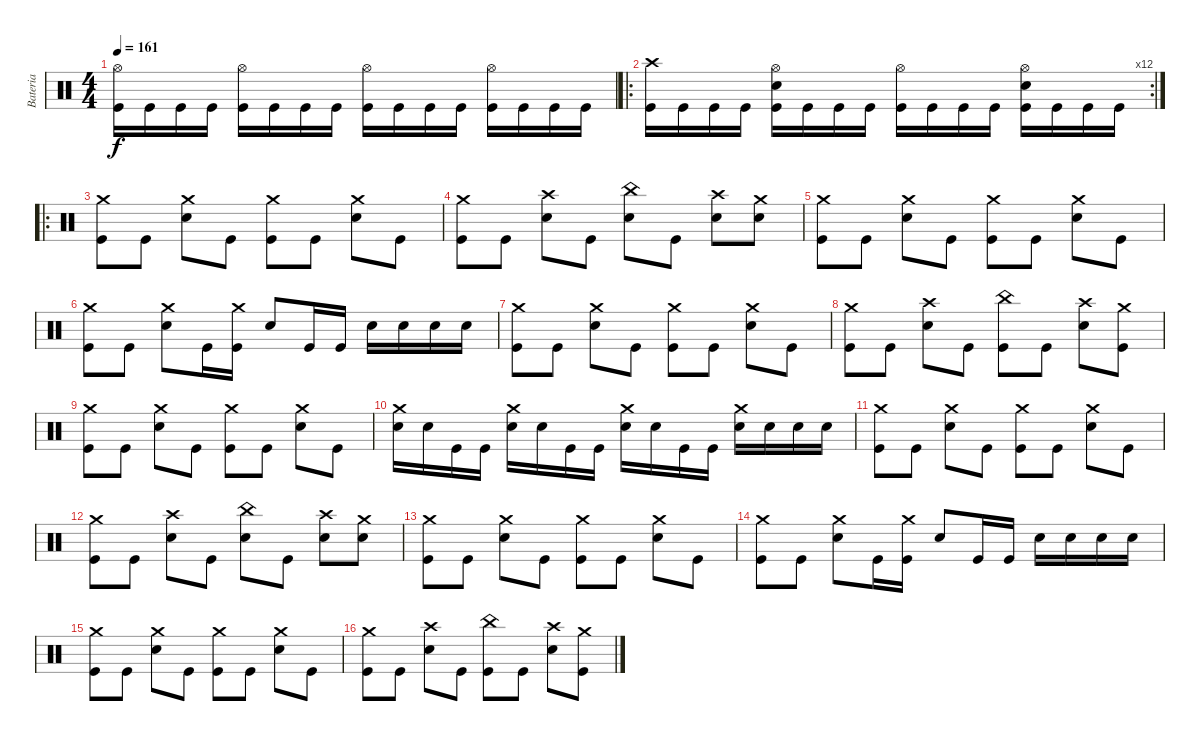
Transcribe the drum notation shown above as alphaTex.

\track ("Bateria" "Bateria") {instrument percussion}
\staff {score}
\articulation defaults
\ts (4 4)
\tempo 161
\clef neutral
\ks c
("Hi-Hat (open)" "Kick (hit)").16{dy f} "Kick (hit)".16 "Kick (hit)".16 "Kick (hit)".16 ("Hi-Hat (open)" "Kick (hit)").16 "Kick (hit)".16 "Kick (hit)".16 "Kick (hit)".16 ("Hi-Hat (open)" "Kick (hit)").16 "Kick (hit)".16 "Kick (hit)".16 "Kick (hit)".16 ("Hi-Hat (open)" "Kick (hit)").16 "Kick (hit)".16 "Kick (hit)".16 "Kick (hit)".16 |
\ro
\rc 12
("Crash high (hit)" "Kick (hit)").16 "Kick (hit)".16 "Kick (hit)".16 "Kick (hit)".16 ("Hi-Hat (open)" "Kick (hit)" "Electric Snare (hit)").16 "Kick (hit)".16 "Kick (hit)".16 "Kick (hit)".16 ("Hi-Hat (open)" "Kick (hit)").16 "Kick (hit)".16 "Kick (hit)".16 "Kick (hit)".16 ("Hi-Hat (open)" "Kick (hit)" "Electric Snare (hit)").16 "Kick (hit)".16 "Kick (hit)".16 "Kick (hit)".16 |
\ro
("Crash medium (hit)" "Kick (hit)").8 "Kick (hit)".8 ("Crash medium (hit)" "Electric Snare (hit)").8 "Kick (hit)".8 ("Crash medium (hit)" "Kick (hit)").8 "Kick (hit)".8 ("Crash medium (hit)" "Electric Snare (hit)").8 "Kick (hit)".8 |
("Crash medium (hit)" "Kick (hit)").8 "Kick (hit)".8 ("Crash high (hit)" "Electric Snare (hit)").8 "Kick (hit)".8 ("China (hit)" "Electric Snare (hit)").8 "Kick (hit)".8 ("Crash high (hit)" "Electric Snare (hit)").8 ("Crash medium (hit)" "Electric Snare (hit)").8 |
("Crash medium (hit)" "Kick (hit)").8 "Kick (hit)".8 ("Crash medium (hit)" "Electric Snare (hit)").8 "Kick (hit)".8 ("Crash medium (hit)" "Kick (hit)").8 "Kick (hit)".8 ("Crash medium (hit)" "Electric Snare (hit)").8 "Kick (hit)".8 |
("Crash medium (hit)" "Kick (hit)").8 "Kick (hit)".8 ("Crash medium (hit)" "Electric Snare (hit)").8 "Kick (hit)".16 ("Crash medium (hit)" "Kick (hit)").16 "Electric Snare (hit)".8 "Kick (hit)".16 "Kick (hit)".16 "Electric Snare (hit)".16 "Electric Snare (hit)".16 "Electric Snare (hit)".16 "Electric Snare (hit)".16 |
("Crash medium (hit)" "Kick (hit)").8 "Kick (hit)".8 ("Crash medium (hit)" "Electric Snare (hit)").8 "Kick (hit)".8 ("Crash medium (hit)" "Kick (hit)").8 "Kick (hit)".8 ("Crash medium (hit)" "Electric Snare (hit)").8 "Kick (hit)".8 |
("Crash medium (hit)" "Kick (hit)").8 "Kick (hit)".8 ("Crash high (hit)" "Electric Snare (hit)").8 "Kick (hit)".8 ("China (hit)" "Kick (hit)").8 "Kick (hit)".8 ("Crash high (hit)" "Electric Snare (hit)").8 ("Crash medium (hit)" "Kick (hit)").8 |
("Crash medium (hit)" "Kick (hit)").8 "Kick (hit)".8 ("Crash medium (hit)" "Electric Snare (hit)").8 "Kick (hit)".8 ("Crash medium (hit)" "Kick (hit)").8 "Kick (hit)".8 ("Crash medium (hit)" "Electric Snare (hit)").8 "Kick (hit)".8 |
("Crash medium (hit)" "Electric Snare (hit)").16 "Electric Snare (hit)".16 "Kick (hit)".16 "Kick (hit)".16 ("Crash medium (hit)" "Electric Snare (hit)").16 "Electric Snare (hit)".16 "Kick (hit)".16 "Kick (hit)".16 ("Crash medium (hit)" "Electric Snare (hit)").16 "Electric Snare (hit)".16 "Kick (hit)".16 "Kick (hit)".16 ("Crash medium (hit)" "Electric Snare (hit)").16 "Electric Snare (hit)".16 "Electric Snare (hit)".16 "Electric Snare (hit)".16 |
("Crash medium (hit)" "Kick (hit)").8 "Kick (hit)".8 ("Crash medium (hit)" "Electric Snare (hit)").8 "Kick (hit)".8 ("Crash medium (hit)" "Kick (hit)").8 "Kick (hit)".8 ("Crash medium (hit)" "Electric Snare (hit)").8 "Kick (hit)".8 |
("Crash medium (hit)" "Kick (hit)").8 "Kick (hit)".8 ("Crash high (hit)" "Electric Snare (hit)").8 "Kick (hit)".8 ("China (hit)" "Electric Snare (hit)").8 "Kick (hit)".8 ("Crash high (hit)" "Electric Snare (hit)").8 ("Crash medium (hit)" "Electric Snare (hit)").8 |
("Crash medium (hit)" "Kick (hit)").8 "Kick (hit)".8 ("Crash medium (hit)" "Electric Snare (hit)").8 "Kick (hit)".8 ("Crash medium (hit)" "Kick (hit)").8 "Kick (hit)".8 ("Crash medium (hit)" "Electric Snare (hit)").8 "Kick (hit)".8 |
("Crash medium (hit)" "Kick (hit)").8 "Kick (hit)".8 ("Crash medium (hit)" "Electric Snare (hit)").8 "Kick (hit)".16 ("Crash medium (hit)" "Kick (hit)").16 "Electric Snare (hit)".8 "Kick (hit)".16 "Kick (hit)".16 "Electric Snare (hit)".16 "Electric Snare (hit)".16 "Electric Snare (hit)".16 "Electric Snare (hit)".16 |
("Crash medium (hit)" "Kick (hit)").8 "Kick (hit)".8 ("Crash medium (hit)" "Electric Snare (hit)").8 "Kick (hit)".8 ("Crash medium (hit)" "Kick (hit)").8 "Kick (hit)".8 ("Crash medium (hit)" "Electric Snare (hit)").8 "Kick (hit)".8 |
("Crash medium (hit)" "Kick (hit)").8 "Kick (hit)".8 ("Crash high (hit)" "Electric Snare (hit)").8 "Kick (hit)".8 ("China (hit)" "Kick (hit)").8 "Kick (hit)".8 ("Crash high (hit)" "Electric Snare (hit)").8 ("Crash medium (hit)" "Kick (hit)").8
